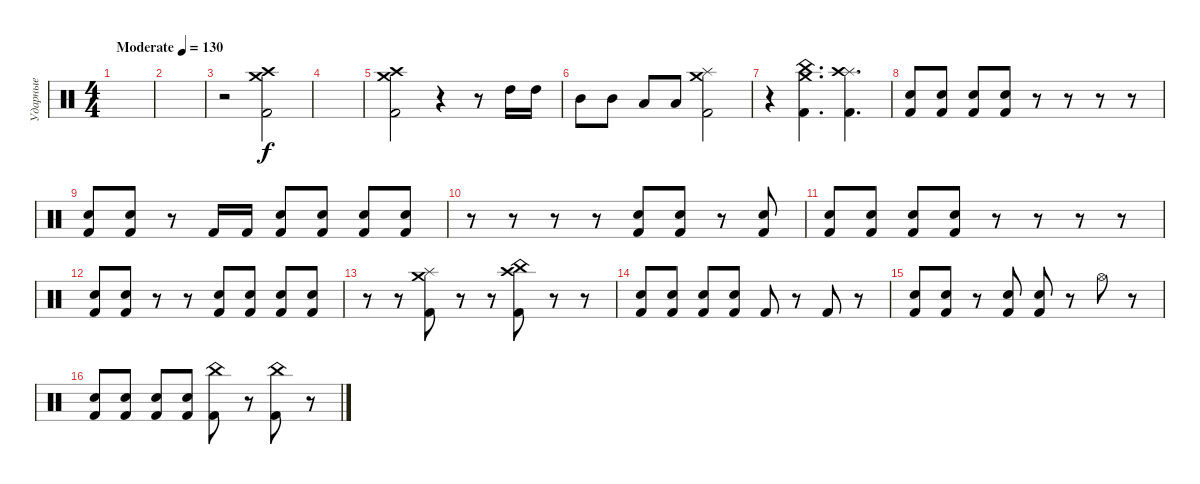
\track ("Ударные" "Ударные") {instrument percussion}
\staff {score}
\articulation defaults
\ts (4 4)
\tempo (130 "Moderate")
\clef neutral
\ks c
|
|
r.2 ("Kick (hit) 2" "Crash high (hit)" "Crash medium (hit)").2 |
|
("Kick (hit) 2" "Crash high (hit)" "Crash medium (hit)").2 r.4 r.8 "High Tom (hit)".16 "High Tom (hit)".16 |
"Mid Tom (hit)".8 "Mid Tom (hit)".8 "Low Tom (hit)".8 "Low Tom (hit)".8 ("Kick (hit) 2" "Splash (hit)" "Crash medium (hit)").2 |
r.4 ("Kick (hit) 2" "China (hit)" "Crash medium (hit)").4{d} ("Kick (hit) 2" "Splash (hit)" "Crash high (hit)").4{d} |
("Kick (hit) 2" "Electric Snare (hit)").8 ("Kick (hit) 2" "Electric Snare (hit)").8 ("Kick (hit) 2" "Electric Snare (hit)").8 ("Kick (hit) 2" "Electric Snare (hit)").8 r.8 r.8 r.8 r.8 |
("Kick (hit) 2" "Electric Snare (hit)").8 ("Kick (hit) 2" "Electric Snare (hit)").8 r.8 "Kick (hit) 2".16 "Kick (hit) 2".16 ("Kick (hit) 2" "Electric Snare (hit)").8 ("Kick (hit) 2" "Electric Snare (hit)").8 ("Kick (hit) 2" "Electric Snare (hit)").8 ("Kick (hit) 2" "Electric Snare (hit)").8 |
r.8 r.8 r.8 r.8 ("Kick (hit) 2" "Electric Snare (hit)").8 ("Kick (hit) 2" "Electric Snare (hit)").8 r.8 ("Kick (hit) 2" "Electric Snare (hit)").8 |
("Kick (hit) 2" "Electric Snare (hit)").8 ("Kick (hit) 2" "Electric Snare (hit)").8 ("Kick (hit) 2" "Electric Snare (hit)").8 ("Kick (hit) 2" "Electric Snare (hit)").8 r.8 r.8 r.8 r.8 |
("Kick (hit) 2" "Electric Snare (hit)").8 ("Kick (hit) 2" "Electric Snare (hit)").8 r.8 r.8 ("Kick (hit) 2" "Electric Snare (hit)").8 ("Kick (hit) 2" "Electric Snare (hit)").8 ("Kick (hit) 2" "Electric Snare (hit)").8 ("Kick (hit) 2" "Electric Snare (hit)").8 |
r.8 r.8 ("Kick (hit) 2" "Splash (hit)" "Crash medium (hit)").8 r.8 r.8 ("Kick (hit) 2" "China (hit)" "Crash high (hit)").8 r.8 r.8 |
("Kick (hit) 2" "Electric Snare (hit)").8 ("Kick (hit) 2" "Electric Snare (hit)").8 ("Kick (hit) 2" "Electric Snare (hit)").8 ("Kick (hit) 2" "Electric Snare (hit)").8 "Kick (hit) 2".8 r.8 "Kick (hit) 2".8 r.8 |
("Kick (hit) 2" "Electric Snare (hit)").8 ("Kick (hit) 2" "Electric Snare (hit)").8 r.8 ("Kick (hit) 2" "Electric Snare (hit)").8 ("Kick (hit) 2" "Electric Snare (hit)").8 r.8 "Hi-Hat (open)".8 r.8 |
("Kick (hit) 2" "Electric Snare (hit)").8 ("Kick (hit) 2" "Electric Snare (hit)").8 ("Kick (hit) 2" "Electric Snare (hit)").8 ("Kick (hit) 2" "Electric Snare (hit)").8 ("Kick (hit) 2" "China (hit)").8 r.8 ("Kick (hit) 2" "China (hit)").8 r.8
